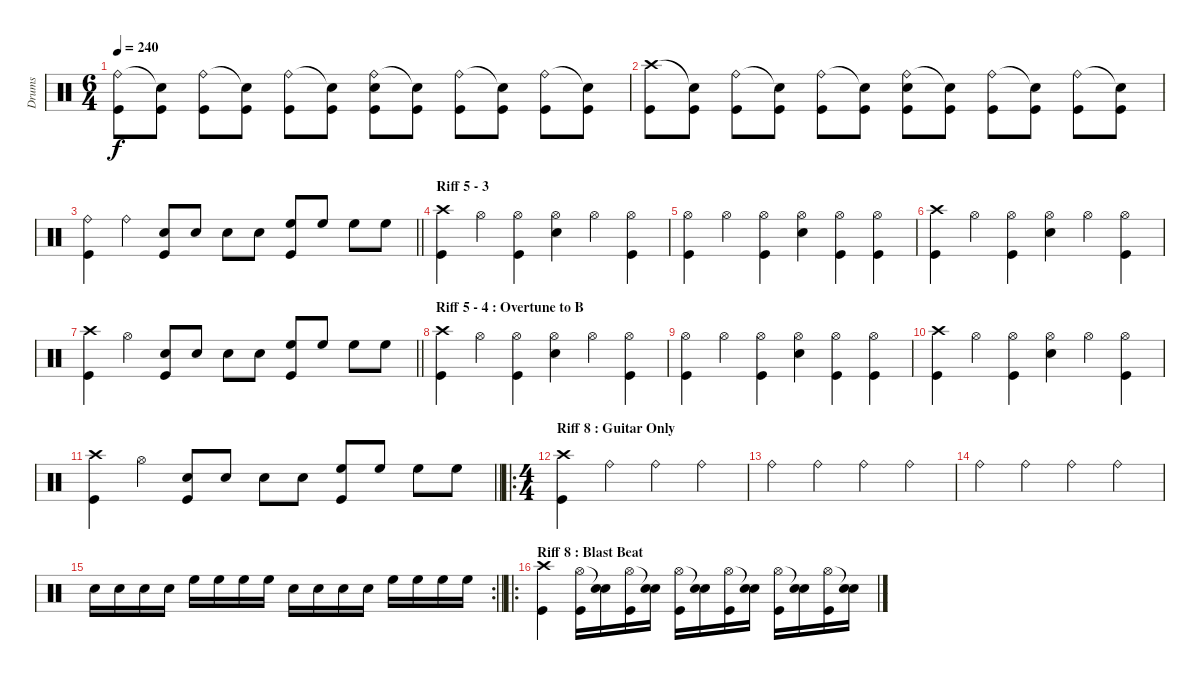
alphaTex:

\track ("Drums " "Drums ") {instrument percussion}
\staff {score}
\articulation defaults
\ts (6 4)
\tempo 240
\clef neutral
\ks c
("Ride (bell)" "Kick (hit)").8{dy f} ("Snare (hit)"{t} "Kick (hit)").8 ("Ride (bell)" "Kick (hit)").8 ("Snare (hit)"{t} "Kick (hit)").8 ("Ride (bell)" "Kick (hit)").8 ("Snare (hit)"{t} "Kick (hit)").8 ("Ride (bell)" "Electric Snare (hit)" "Kick (hit)").8 ("Snare (hit)"{t} "Kick (hit)").8 ("Ride (bell)" "Kick (hit)").8 ("Snare (hit)"{t} "Kick (hit)").8 ("Ride (bell)" "Kick (hit)").8 ("Snare (hit)"{t} "Kick (hit)").8 |
("Crash high (hit)" "Kick (hit)").8 ("Snare (hit)"{t} "Kick (hit)").8 ("Ride (bell)" "Kick (hit)").8 ("Snare (hit)"{t} "Kick (hit)").8 ("Ride (bell)" "Kick (hit)").8 ("Snare (hit)"{t} "Kick (hit)").8 ("Ride (bell)" "Electric Snare (hit)" "Kick (hit)").8 ("Snare (hit)"{t} "Kick (hit)").8 ("Ride (bell)" "Kick (hit)").8 ("Snare (hit)"{t} "Kick (hit)").8 ("Ride (bell)" "Kick (hit)").8 ("Snare (hit)"{t} "Kick (hit)").8 |
\barLineRight lightlight
("Ride (bell)" "Kick (hit)").4 "Ride (bell)".4 ("Electric Snare (hit)" "Kick (hit)").8 "Electric Snare (hit)".8 "Electric Snare (hit)".8 "Electric Snare (hit)".8 ("High Floor Tom (hit)" "Kick (hit)").8 "High Floor Tom (hit)".8 "High Floor Tom (hit)".8 "High Floor Tom (hit)".8 |
\section ("" "Riff 5 - 3")
("Crash high (hit)" "Kick (hit)").4 "Hi-Hat (open)".4 ("Hi-Hat (open)" "Kick (hit)").4 ("Hi-Hat (open)" "Electric Snare (hit)").4 "Hi-Hat (open)".4 ("Hi-Hat (open)" "Kick (hit)").4 |
("Hi-Hat (open)" "Kick (hit)").4 "Hi-Hat (open)".4 ("Hi-Hat (open)" "Kick (hit)").4 ("Hi-Hat (open)" "Electric Snare (hit)").4 ("Hi-Hat (open)" "Kick (hit)").4 ("Hi-Hat (open)" "Kick (hit)").4 |
("Crash high (hit)" "Kick (hit)").4 "Hi-Hat (open)".4 ("Hi-Hat (open)" "Kick (hit)").4 ("Hi-Hat (open)" "Electric Snare (hit)").4 "Hi-Hat (open)".4 ("Hi-Hat (open)" "Kick (hit)").4 |
\barLineRight lightlight
("Crash high (hit)" "Kick (hit)").4 "Hi-Hat (open)".4 ("Electric Snare (hit)" "Kick (hit)").8 "Electric Snare (hit)".8 "Electric Snare (hit)".8 "Electric Snare (hit)".8 ("High Floor Tom (hit)" "Kick (hit)").8 "High Floor Tom (hit)".8 "High Floor Tom (hit)".8 "High Floor Tom (hit)".8 |
\section ("" "Riff 5 - 4 : Overtune to B")
("Crash high (hit)" "Kick (hit)").4 "Hi-Hat (open)".4 ("Hi-Hat (open)" "Kick (hit)").4 ("Hi-Hat (open)" "Electric Snare (hit)").4 "Hi-Hat (open)".4 ("Hi-Hat (open)" "Kick (hit)").4 |
("Hi-Hat (open)" "Kick (hit)").4 "Hi-Hat (open)".4 ("Hi-Hat (open)" "Kick (hit)").4 ("Hi-Hat (open)" "Electric Snare (hit)").4 ("Hi-Hat (open)" "Kick (hit)").4 ("Hi-Hat (open)" "Kick (hit)").4 |
("Crash high (hit)" "Kick (hit)").4 "Hi-Hat (open)".4 ("Hi-Hat (open)" "Kick (hit)").4 ("Hi-Hat (open)" "Electric Snare (hit)").4 "Hi-Hat (open)".4 ("Hi-Hat (open)" "Kick (hit)").4 |
\barLineRight lightlight
("Crash high (hit)" "Kick (hit)").4 "Hi-Hat (open)".4 ("Electric Snare (hit)" "Kick (hit)").8 "Electric Snare (hit)".8 "Electric Snare (hit)".8 "Electric Snare (hit)".8 ("High Floor Tom (hit)" "Kick (hit)").8 "High Floor Tom (hit)".8 "High Floor Tom (hit)".8 "High Floor Tom (hit)".8 |
\ro
\ts (4 4)
\section ("" "Riff 8 : Guitar Only")
("Crash high (hit)" "Kick (hit)").4 "Ride (bell)".4 "Ride (bell)".4 "Ride (bell)".4 |
"Ride (bell)".4 "Ride (bell)".4 "Ride (bell)".4 "Ride (bell)".4 |
"Ride (bell)".4 "Ride (bell)".4 "Ride (bell)".4 "Ride (bell)".4 |
\rc 2
\barLineRight lightlight "Electric Snare (hit)".16 "Electric Snare (hit)".16 "Electric Snare (hit)".16 "Electric Snare (hit)".16 "High Floor Tom (hit)".16 "High Floor Tom (hit)".16 "High Floor Tom (hit)".16 "High Floor Tom (hit)".16 "Electric Snare (hit)".16 "Electric Snare (hit)".16 "Electric Snare (hit)".16 "Electric Snare (hit)".16 "High Floor Tom (hit)".16 "High Floor Tom (hit)".16 "High Floor Tom (hit)".16 "High Floor Tom (hit)".16
|
\ro
\section ("" "Riff 8 : Blast Beat")
("Crash high (hit)" "Kick (hit)").4 ("Hi-Hat (open)" "Kick (hit)").16 ("Snare (hit)"{t} "Electric Snare (hit)").16 ("Hi-Hat (open)" "Kick (hit)").16 ("Snare (hit)"{t} "Electric Snare (hit)").16 ("Hi-Hat (open)" "Kick (hit)").16 ("Snare (hit)"{t} "Electric Snare (hit)").16 ("Hi-Hat (open)" "Kick (hit)").16 ("Snare (hit)"{t} "Electric Snare (hit)").16 ("Hi-Hat (open)" "Kick (hit)").16 ("Snare (hit)"{t} "Electric Snare (hit)").16 ("Hi-Hat (open)" "Kick (hit)").16 ("Snare (hit)"{t} "Electric Snare (hit)").16
